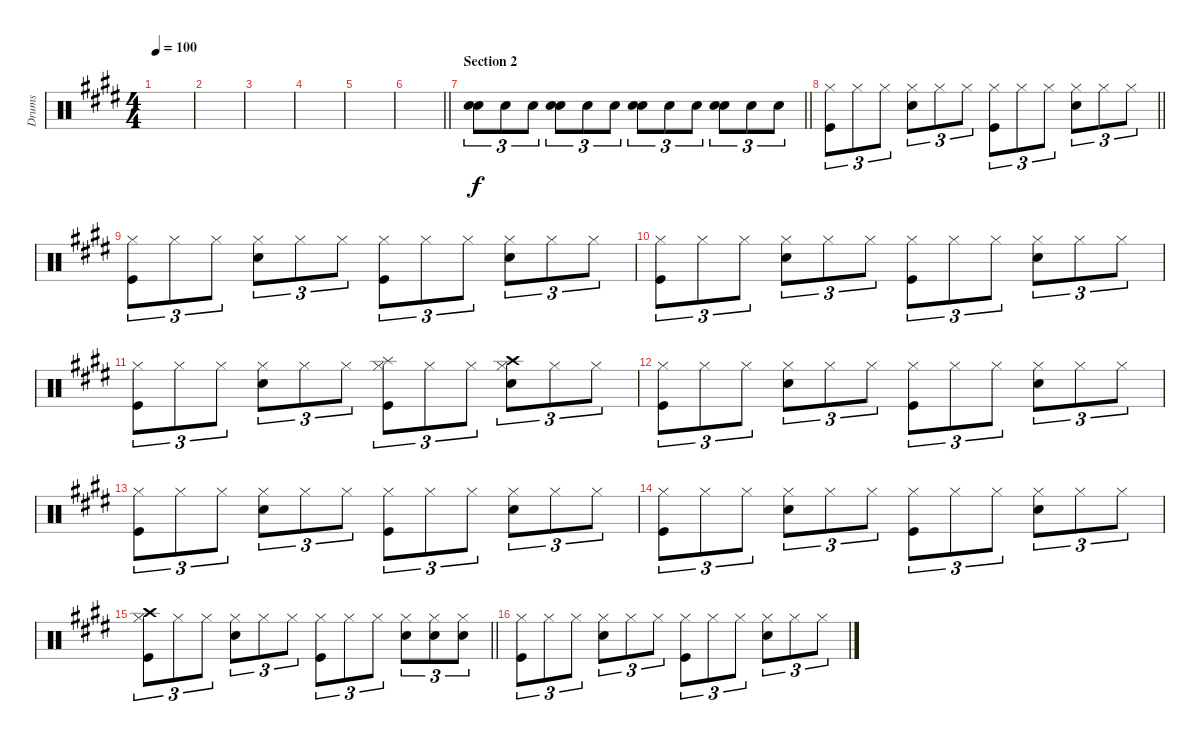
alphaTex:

\track ("Drums" "Drums") {instrument percussion}
\staff {score}
\articulation defaults
\ts (4 4)
\tempo 100
\clef neutral
\ks e
|
\ks c#minor
|
|
\ks e
|
\ks c#minor
|
\barLineRight lightlight
|
\section ("" "Section 2")
\barLineRight lightlight
("Snare (hit) 2" "Snare (hit) 2").8{tu (3 2)} "Snare (hit) 2".8{tu (3 2)} "Snare (hit) 2".8{tu (3 2)} ("Snare (hit) 2" "Snare (hit) 2").8{tu (3 2)} "Snare (hit) 2".8{tu (3 2)} "Snare (hit) 2".8{tu (3 2)} ("Snare (hit) 2" "Snare (hit) 2").8{tu (3 2)} "Snare (hit) 2".8{tu (3 2)} "Snare (hit) 2".8{tu (3 2)} ("Snare (hit) 2" "Snare (hit) 2").8{tu (3 2)} "Snare (hit) 2".8{tu (3 2)} "Snare (hit) 2".8{tu (3 2)} |
\section ("" "")
\barLineRight lightlight
\ks e
("Hi-Hat (closed)" "Kick (hit)").8{tu (3 2)} "Hi-Hat (closed)".8{tu (3 2)} "Hi-Hat (closed)".8{tu (3 2)} ("Hi-Hat (closed)" "Snare (hit) 2").8{tu (3 2)} "Hi-Hat (closed)".8{tu (3 2)} "Hi-Hat (closed)".8{tu (3 2)} ("Hi-Hat (closed)" "Kick (hit)").8{tu (3 2)} "Hi-Hat (closed)".8{tu (3 2)} "Hi-Hat (closed)".8{tu (3 2)} ("Hi-Hat (closed)" "Snare (hit) 2").8{tu (3 2)} "Hi-Hat (closed)".8{tu (3 2)} "Hi-Hat (closed)".8{tu (3 2)} |
\section ("" "")
\ks c#minor
("Hi-Hat (closed)" "Kick (hit)").8{tu (3 2)} "Hi-Hat (closed)".8{tu (3 2)} "Hi-Hat (closed)".8{tu (3 2)} ("Hi-Hat (closed)" "Snare (hit) 2").8{tu (3 2)} "Hi-Hat (closed)".8{tu (3 2)} "Hi-Hat (closed)".8{tu (3 2)} ("Hi-Hat (closed)" "Kick (hit)").8{tu (3 2)} "Hi-Hat (closed)".8{tu (3 2)} "Hi-Hat (closed)".8{tu (3 2)} ("Hi-Hat (closed)" "Snare (hit) 2").8{tu (3 2)} "Hi-Hat (closed)".8{tu (3 2)} "Hi-Hat (closed)".8{tu (3 2)} |
("Hi-Hat (closed)" "Kick (hit)").8{tu (3 2)} "Hi-Hat (closed)".8{tu (3 2)} "Hi-Hat (closed)".8{tu (3 2)} ("Hi-Hat (closed)" "Snare (hit) 2").8{tu (3 2)} "Hi-Hat (closed)".8{tu (3 2)} "Hi-Hat (closed)".8{tu (3 2)} ("Hi-Hat (closed)" "Kick (hit)").8{tu (3 2)} "Hi-Hat (closed)".8{tu (3 2)} "Hi-Hat (closed)".8{tu (3 2)} ("Hi-Hat (closed)" "Snare (hit) 2").8{tu (3 2)} "Hi-Hat (closed)".8{tu (3 2)} "Hi-Hat (closed)".8{tu (3 2)} |
\ks e
("Hi-Hat (closed)" "Kick (hit)").8{tu (3 2)} "Hi-Hat (closed)".8{tu (3 2)} "Hi-Hat (closed)".8{tu (3 2)} ("Hi-Hat (closed)" "Snare (hit) 2").8{tu (3 2)} "Hi-Hat (closed)".8{tu (3 2)} "Hi-Hat (closed)".8{tu (3 2)} ("Hi-Hat (closed)" "Splash (hit)" "Kick (hit)").8{tu (3 2)} "Hi-Hat (closed)".8{tu (3 2)} "Hi-Hat (closed)".8{tu (3 2)} ("Hi-Hat (closed)" "Crash high (hit)" "Snare (hit) 2").8{tu (3 2)} "Hi-Hat (closed)".8{tu (3 2)} "Hi-Hat (closed)".8{tu (3 2)} |
\ks c#minor
("Hi-Hat (closed)" "Kick (hit)").8{tu (3 2)} "Hi-Hat (closed)".8{tu (3 2)} "Hi-Hat (closed)".8{tu (3 2)} ("Hi-Hat (closed)" "Snare (hit) 2").8{tu (3 2)} "Hi-Hat (closed)".8{tu (3 2)} "Hi-Hat (closed)".8{tu (3 2)} ("Hi-Hat (closed)" "Kick (hit)").8{tu (3 2)} "Hi-Hat (closed)".8{tu (3 2)} "Hi-Hat (closed)".8{tu (3 2)} ("Hi-Hat (closed)" "Snare (hit) 2").8{tu (3 2)} "Hi-Hat (closed)".8{tu (3 2)} "Hi-Hat (closed)".8{tu (3 2)} |
("Hi-Hat (closed)" "Kick (hit)").8{tu (3 2)} "Hi-Hat (closed)".8{tu (3 2)} "Hi-Hat (closed)".8{tu (3 2)} ("Hi-Hat (closed)" "Snare (hit) 2").8{tu (3 2)} "Hi-Hat (closed)".8{tu (3 2)} "Hi-Hat (closed)".8{tu (3 2)} ("Hi-Hat (closed)" "Kick (hit)").8{tu (3 2)} "Hi-Hat (closed)".8{tu (3 2)} "Hi-Hat (closed)".8{tu (3 2)} ("Hi-Hat (closed)" "Snare (hit) 2").8{tu (3 2)} "Hi-Hat (closed)".8{tu (3 2)} "Hi-Hat (closed)".8{tu (3 2)} |
\ks e
("Hi-Hat (closed)" "Kick (hit)").8{tu (3 2)} "Hi-Hat (closed)".8{tu (3 2)} "Hi-Hat (closed)".8{tu (3 2)} ("Hi-Hat (closed)" "Snare (hit) 2").8{tu (3 2)} "Hi-Hat (closed)".8{tu (3 2)} "Hi-Hat (closed)".8{tu (3 2)} ("Hi-Hat (closed)" "Kick (hit)").8{tu (3 2)} "Hi-Hat (closed)".8{tu (3 2)} "Hi-Hat (closed)".8{tu (3 2)} ("Hi-Hat (closed)" "Snare (hit) 2").8{tu (3 2)} "Hi-Hat (closed)".8{tu (3 2)} "Hi-Hat (closed)".8{tu (3 2)} |
\barLineRight lightlight
\ks c#minor
("Hi-Hat (closed)" "Crash high (hit)" "Kick (hit)").8{tu (3 2)} "Hi-Hat (closed)".8{tu (3 2)} "Hi-Hat (closed)".8{tu (3 2)} ("Hi-Hat (closed)" "Snare (hit) 2").8{tu (3 2)} "Hi-Hat (closed)".8{tu (3 2)} "Hi-Hat (closed)".8{tu (3 2)} ("Hi-Hat (closed)" "Kick (hit)").8{tu (3 2)} "Hi-Hat (closed)".8{tu (3 2)} "Hi-Hat (closed)".8{tu (3 2)} ("Hi-Hat (closed)" "Snare (hit) 2").8{tu (3 2)} ("Hi-Hat (closed)" "Snare (hit) 2").8{tu (3 2)} ("Hi-Hat (closed)" "Snare (hit) 2").8{tu (3 2)} |
("Hi-Hat (closed)" "Kick (hit)").8{tu (3 2)} "Hi-Hat (closed)".8{tu (3 2)} "Hi-Hat (closed)".8{tu (3 2)} ("Hi-Hat (closed)" "Snare (hit) 2").8{tu (3 2)} "Hi-Hat (closed)".8{tu (3 2)} "Hi-Hat (closed)".8{tu (3 2)} ("Hi-Hat (closed)" "Kick (hit)").8{tu (3 2)} "Hi-Hat (closed)".8{tu (3 2)} "Hi-Hat (closed)".8{tu (3 2)} ("Hi-Hat (closed)" "Snare (hit) 2").8{tu (3 2)} "Hi-Hat (closed)".8{tu (3 2)} "Hi-Hat (closed)".8{tu (3 2)}
